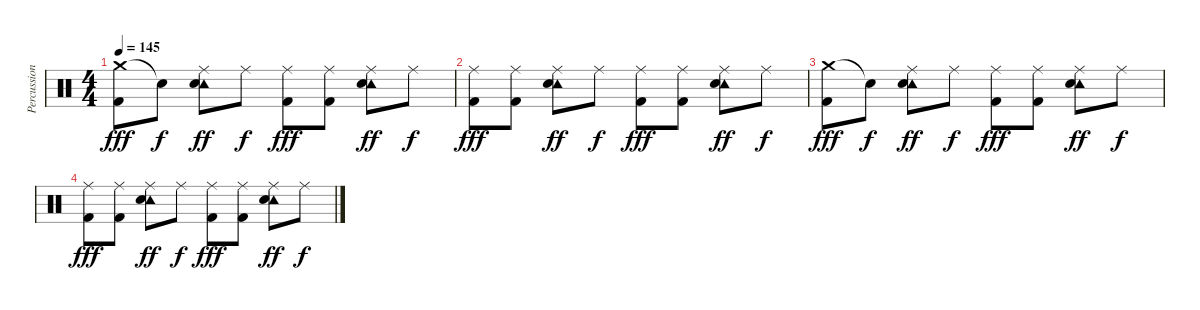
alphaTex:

\track ("Percussion" "Percussion") {instrument percussion}
\staff {score}
\articulation defaults
\ts (4 4)
\tempo 145
\clef neutral
\ks c
("Crash medium (hit)" "Kick (hit) 2").8{dy fff} "Snare (hit)"{t}.8{dy f} ("Ride (middle)" "Tambourine (hit)" "Electric Snare (hit)").8{dy ff} "Ride (middle)".8{dy f} ("Ride (middle)" "Kick (hit) 2").8{dy fff} ("Ride (middle)" "Kick (hit) 2").8 ("Ride (middle)" "Tambourine (hit)" "Electric Snare (hit)").8{dy ff} "Ride (middle)".8{dy f} |
("Ride (middle)" "Kick (hit) 2").8{dy fff} ("Ride (middle)" "Kick (hit) 2").8 ("Ride (middle)" "Tambourine (hit)" "Electric Snare (hit)").8{dy ff} "Ride (middle)".8{dy f} ("Ride (middle)" "Kick (hit) 2").8{dy fff} ("Ride (middle)" "Kick (hit) 2").8 ("Ride (middle)" "Tambourine (hit)" "Electric Snare (hit)").8{dy ff} "Ride (middle)".8{dy f} |
("Crash medium (hit)" "Kick (hit) 2").8{dy fff} "Snare (hit)"{t}.8{dy f} ("Ride (middle)" "Tambourine (hit)" "Electric Snare (hit)").8{dy ff} "Ride (middle)".8{dy f} ("Ride (middle)" "Kick (hit) 2").8{dy fff} ("Ride (middle)" "Kick (hit) 2").8 ("Ride (middle)" "Tambourine (hit)" "Electric Snare (hit)").8{dy ff} "Ride (middle)".8{dy f} |
("Ride (middle)" "Kick (hit) 2").8{dy fff} ("Ride (middle)" "Kick (hit) 2").8 ("Ride (middle)" "Tambourine (hit)" "Electric Snare (hit)").8{dy ff} "Ride (middle)".8{dy f} ("Ride (middle)" "Kick (hit) 2").8{dy fff} ("Ride (middle)" "Kick (hit) 2").8 ("Ride (middle)" "Tambourine (hit)" "Electric Snare (hit)").8{dy ff} "Ride (middle)".8{dy f}
